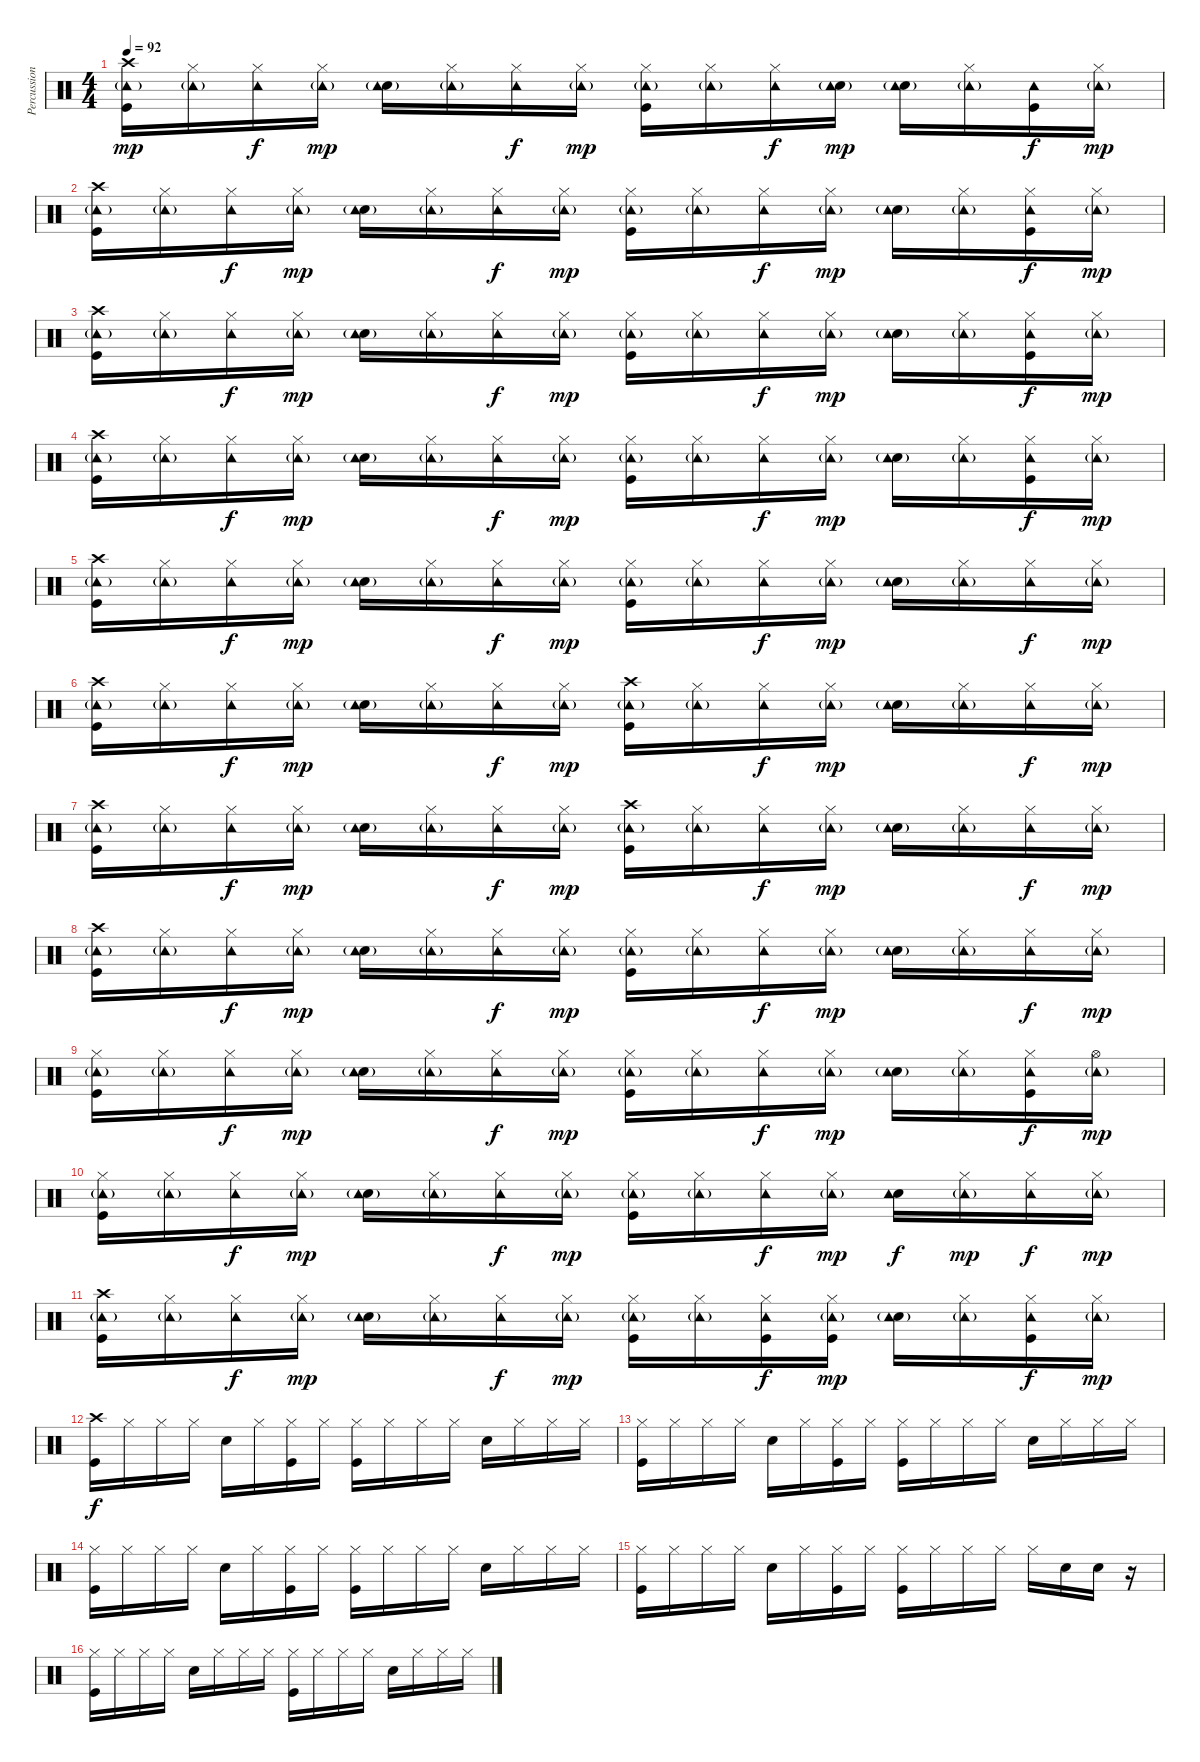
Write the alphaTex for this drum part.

\track ("Percussion" "Percussion") {instrument percussion}
\staff {score}
\articulation defaults
\ts (4 4)
\tempo 92
\clef neutral
\ks c
("Crash high (hit)" "Kick (hit)" "Tambourine (hit)"{g}).16{dy mp} ("Hi-Hat (closed)" "Tambourine (hit)"{g}).16 ("Hi-Hat (closed)" "Tambourine (hit)").16{dy f} ("Hi-Hat (closed)" "Tambourine (hit)"{g}).16{dy mp} ("Snare (hit) 2" "Tambourine (hit)"{g}).16 ("Hi-Hat (closed)" "Tambourine (hit)"{g}).16 ("Hi-Hat (closed)" "Tambourine (hit)").16{dy f} ("Hi-Hat (closed)" "Tambourine (hit)"{g}).16{dy mp} ("Hi-Hat (closed)" "Kick (hit)" "Tambourine (hit)"{g}).16 ("Hi-Hat (closed)" "Tambourine (hit)"{g}).16 ("Hi-Hat (closed)" "Tambourine (hit)").16{dy f} ("Snare (hit) 2" "Tambourine (hit)"{g}).16{dy mp} ("Snare (hit) 2" "Tambourine (hit)"{g}).16 ("Hi-Hat (closed)" "Tambourine (hit)"{g}).16 ("Kick (hit)" "Tambourine (hit)").16{dy f} ("Hi-Hat (closed)" "Tambourine (hit)"{g}).16{dy mp} |
("Crash high (hit)" "Kick (hit)" "Tambourine (hit)"{g}).16 ("Hi-Hat (closed)" "Tambourine (hit)"{g}).16 ("Hi-Hat (closed)" "Tambourine (hit)").16{dy f} ("Hi-Hat (closed)" "Tambourine (hit)"{g}).16{dy mp} ("Snare (hit) 2" "Tambourine (hit)"{g}).16 ("Hi-Hat (closed)" "Tambourine (hit)"{g}).16 ("Hi-Hat (closed)" "Tambourine (hit)").16{dy f} ("Hi-Hat (closed)" "Tambourine (hit)"{g}).16{dy mp} ("Hi-Hat (closed)" "Kick (hit)" "Tambourine (hit)"{g}).16 ("Hi-Hat (closed)" "Tambourine (hit)"{g}).16 ("Hi-Hat (closed)" "Tambourine (hit)").16{dy f} ("Hi-Hat (closed)" "Tambourine (hit)"{g}).16{dy mp} ("Snare (hit) 2" "Tambourine (hit)"{g}).16 ("Hi-Hat (closed)" "Tambourine (hit)"{g}).16 ("Hi-Hat (closed)" "Kick (hit)" "Tambourine (hit)").16{dy f} ("Hi-Hat (closed)" "Tambourine (hit)"{g}).16{dy mp} |
("Crash high (hit)" "Kick (hit)" "Tambourine (hit)"{g}).16 ("Hi-Hat (closed)" "Tambourine (hit)"{g}).16 ("Hi-Hat (closed)" "Tambourine (hit)").16{dy f} ("Hi-Hat (closed)" "Tambourine (hit)"{g}).16{dy mp} ("Snare (hit) 2" "Tambourine (hit)"{g}).16 ("Hi-Hat (closed)" "Tambourine (hit)"{g}).16 ("Hi-Hat (closed)" "Tambourine (hit)").16{dy f} ("Hi-Hat (closed)" "Tambourine (hit)"{g}).16{dy mp} ("Hi-Hat (closed)" "Kick (hit)" "Tambourine (hit)"{g}).16 ("Hi-Hat (closed)" "Tambourine (hit)"{g}).16 ("Hi-Hat (closed)" "Tambourine (hit)").16{dy f} ("Hi-Hat (closed)" "Tambourine (hit)"{g}).16{dy mp} ("Snare (hit) 2" "Tambourine (hit)"{g}).16 ("Hi-Hat (closed)" "Tambourine (hit)"{g}).16 ("Hi-Hat (closed)" "Kick (hit)" "Tambourine (hit)").16{dy f} ("Hi-Hat (closed)" "Tambourine (hit)"{g}).16{dy mp} |
("Crash high (hit)" "Kick (hit)" "Tambourine (hit)"{g}).16 ("Hi-Hat (closed)" "Tambourine (hit)"{g}).16 ("Hi-Hat (closed)" "Tambourine (hit)").16{dy f} ("Hi-Hat (closed)" "Tambourine (hit)"{g}).16{dy mp} ("Snare (hit) 2" "Tambourine (hit)"{g}).16 ("Hi-Hat (closed)" "Tambourine (hit)"{g}).16 ("Hi-Hat (closed)" "Tambourine (hit)").16{dy f} ("Hi-Hat (closed)" "Tambourine (hit)"{g}).16{dy mp} ("Hi-Hat (closed)" "Kick (hit)" "Tambourine (hit)"{g}).16 ("Hi-Hat (closed)" "Tambourine (hit)"{g}).16 ("Hi-Hat (closed)" "Tambourine (hit)").16{dy f} ("Hi-Hat (closed)" "Tambourine (hit)"{g}).16{dy mp} ("Snare (hit) 2" "Tambourine (hit)"{g}).16 ("Hi-Hat (closed)" "Tambourine (hit)"{g}).16 ("Hi-Hat (closed)" "Kick (hit)" "Tambourine (hit)").16{dy f} ("Hi-Hat (closed)" "Tambourine (hit)"{g}).16{dy mp} |
("Crash high (hit)" "Kick (hit)" "Tambourine (hit)"{g}).16 ("Hi-Hat (closed)" "Tambourine (hit)"{g}).16 ("Hi-Hat (closed)" "Tambourine (hit)").16{dy f} ("Hi-Hat (closed)" "Tambourine (hit)"{g}).16{dy mp} ("Snare (hit) 2" "Tambourine (hit)"{g}).16 ("Hi-Hat (closed)" "Tambourine (hit)"{g}).16 ("Hi-Hat (closed)" "Tambourine (hit)").16{dy f} ("Hi-Hat (closed)" "Tambourine (hit)"{g}).16{dy mp} ("Hi-Hat (closed)" "Kick (hit)" "Tambourine (hit)"{g}).16 ("Hi-Hat (closed)" "Tambourine (hit)"{g}).16 ("Hi-Hat (closed)" "Tambourine (hit)").16{dy f} ("Hi-Hat (closed)" "Tambourine (hit)"{g}).16{dy mp} ("Snare (hit) 2" "Tambourine (hit)"{g}).16 ("Hi-Hat (closed)" "Tambourine (hit)"{g}).16 ("Hi-Hat (closed)" "Tambourine (hit)").16{dy f} ("Hi-Hat (closed)" "Tambourine (hit)"{g}).16{dy mp} |
("Crash high (hit)" "Kick (hit)" "Tambourine (hit)"{g}).16 ("Hi-Hat (closed)" "Tambourine (hit)"{g}).16 ("Hi-Hat (closed)" "Tambourine (hit)").16{dy f} ("Hi-Hat (closed)" "Tambourine (hit)"{g}).16{dy mp} ("Snare (hit) 2" "Tambourine (hit)"{g}).16 ("Hi-Hat (closed)" "Tambourine (hit)"{g}).16 ("Hi-Hat (closed)" "Tambourine (hit)").16{dy f} ("Hi-Hat (closed)" "Tambourine (hit)"{g}).16{dy mp} ("Crash high (hit)" "Kick (hit)" "Tambourine (hit)"{g}).16 ("Hi-Hat (closed)" "Tambourine (hit)"{g}).16 ("Hi-Hat (closed)" "Tambourine (hit)").16{dy f} ("Hi-Hat (closed)" "Tambourine (hit)"{g}).16{dy mp} ("Snare (hit) 2" "Tambourine (hit)"{g}).16 ("Hi-Hat (closed)" "Tambourine (hit)"{g}).16 ("Hi-Hat (closed)" "Tambourine (hit)").16{dy f} ("Hi-Hat (closed)" "Tambourine (hit)"{g}).16{dy mp} |
("Crash high (hit)" "Kick (hit)" "Tambourine (hit)"{g}).16 ("Hi-Hat (closed)" "Tambourine (hit)"{g}).16 ("Hi-Hat (closed)" "Tambourine (hit)").16{dy f} ("Hi-Hat (closed)" "Tambourine (hit)"{g}).16{dy mp} ("Snare (hit) 2" "Tambourine (hit)"{g}).16 ("Hi-Hat (closed)" "Tambourine (hit)"{g}).16 ("Hi-Hat (closed)" "Tambourine (hit)").16{dy f} ("Hi-Hat (closed)" "Tambourine (hit)"{g}).16{dy mp} ("Crash high (hit)" "Kick (hit)" "Tambourine (hit)"{g}).16 ("Hi-Hat (closed)" "Tambourine (hit)"{g}).16 ("Hi-Hat (closed)" "Tambourine (hit)").16{dy f} ("Hi-Hat (closed)" "Tambourine (hit)"{g}).16{dy mp} ("Snare (hit) 2" "Tambourine (hit)"{g}).16 ("Hi-Hat (closed)" "Tambourine (hit)"{g}).16 ("Hi-Hat (closed)" "Tambourine (hit)").16{dy f} ("Hi-Hat (closed)" "Tambourine (hit)"{g}).16{dy mp} |
("Crash high (hit)" "Kick (hit)" "Tambourine (hit)"{g}).16 ("Hi-Hat (closed)" "Tambourine (hit)"{g}).16 ("Hi-Hat (closed)" "Tambourine (hit)").16{dy f} ("Hi-Hat (closed)" "Tambourine (hit)"{g}).16{dy mp} ("Snare (hit) 2" "Tambourine (hit)"{g}).16 ("Hi-Hat (closed)" "Tambourine (hit)"{g}).16 ("Hi-Hat (closed)" "Tambourine (hit)").16{dy f} ("Hi-Hat (closed)" "Tambourine (hit)"{g}).16{dy mp} ("Hi-Hat (closed)" "Kick (hit)" "Tambourine (hit)"{g}).16 ("Hi-Hat (closed)" "Tambourine (hit)"{g}).16 ("Hi-Hat (closed)" "Tambourine (hit)").16{dy f} ("Hi-Hat (closed)" "Tambourine (hit)"{g}).16{dy mp} ("Snare (hit) 2" "Tambourine (hit)"{g}).16 ("Hi-Hat (closed)" "Tambourine (hit)"{g}).16 ("Hi-Hat (closed)" "Tambourine (hit)").16{dy f} ("Hi-Hat (closed)" "Tambourine (hit)"{g}).16{dy mp} |
("Hi-Hat (closed)" "Kick (hit)" "Tambourine (hit)"{g}).16 ("Hi-Hat (closed)" "Tambourine (hit)"{g}).16 ("Hi-Hat (closed)" "Tambourine (hit)").16{dy f} ("Hi-Hat (closed)" "Tambourine (hit)"{g}).16{dy mp} ("Snare (hit) 2" "Tambourine (hit)"{g}).16 ("Hi-Hat (closed)" "Tambourine (hit)"{g}).16 ("Hi-Hat (closed)" "Tambourine (hit)").16{dy f} ("Hi-Hat (closed)" "Tambourine (hit)"{g}).16{dy mp} ("Hi-Hat (closed)" "Kick (hit)" "Tambourine (hit)"{g}).16 ("Hi-Hat (closed)" "Tambourine (hit)"{g}).16 ("Hi-Hat (closed)" "Tambourine (hit)").16{dy f} ("Hi-Hat (closed)" "Tambourine (hit)"{g}).16{dy mp} ("Snare (hit) 2" "Tambourine (hit)"{g}).16 ("Hi-Hat (closed)" "Tambourine (hit)"{g}).16 ("Hi-Hat (closed)" "Kick (hit)" "Tambourine (hit)").16{dy f} ("Hi-Hat (open)" "Tambourine (hit)"{g}).16{dy mp} |
("Hi-Hat (closed)" "Kick (hit)" "Tambourine (hit)"{g}).16 ("Hi-Hat (closed)" "Tambourine (hit)"{g}).16 ("Hi-Hat (closed)" "Tambourine (hit)").16{dy f} ("Hi-Hat (closed)" "Tambourine (hit)"{g}).16{dy mp} ("Snare (hit) 2" "Tambourine (hit)"{g}).16 ("Hi-Hat (closed)" "Tambourine (hit)"{g}).16 ("Hi-Hat (closed)" "Tambourine (hit)").16{dy f} ("Hi-Hat (closed)" "Tambourine (hit)"{g}).16{dy mp} ("Hi-Hat (closed)" "Kick (hit)" "Tambourine (hit)"{g}).16 ("Hi-Hat (closed)" "Tambourine (hit)"{g}).16 ("Hi-Hat (closed)" "Tambourine (hit)").16{dy f} ("Hi-Hat (closed)" "Tambourine (hit)"{g}).16{dy mp} ("Snare (hit) 2" "Tambourine (hit)").16{dy f} ("Hi-Hat (closed)" "Tambourine (hit)"{g}).16{dy mp} ("Hi-Hat (closed)" "Tambourine (hit)").16{dy f} ("Hi-Hat (closed)" "Tambourine (hit)"{g}).16{dy mp} |
("Crash high (hit)" "Kick (hit)" "Tambourine (hit)"{g}).16 ("Hi-Hat (closed)" "Tambourine (hit)"{g}).16 ("Hi-Hat (closed)" "Tambourine (hit)").16{dy f} ("Hi-Hat (closed)" "Tambourine (hit)"{g}).16{dy mp} ("Snare (hit) 2" "Tambourine (hit)"{g}).16 ("Hi-Hat (closed)" "Tambourine (hit)"{g}).16 ("Hi-Hat (closed)" "Tambourine (hit)").16{dy f} ("Hi-Hat (closed)" "Tambourine (hit)"{g}).16{dy mp} ("Hi-Hat (closed)" "Kick (hit)" "Tambourine (hit)"{g}).16 ("Hi-Hat (closed)" "Tambourine (hit)"{g}).16 ("Hi-Hat (closed)" "Kick (hit)" "Tambourine (hit)").16{dy f} ("Hi-Hat (closed)" "Kick (hit)" "Tambourine (hit)"{g}).16{dy mp} ("Snare (hit) 2" "Tambourine (hit)"{g}).16 ("Hi-Hat (closed)" "Tambourine (hit)"{g}).16 ("Hi-Hat (closed)" "Kick (hit)" "Tambourine (hit)").16{dy f} ("Hi-Hat (closed)" "Tambourine (hit)"{g}).16{dy mp} |
("Crash high (hit)" "Kick (hit)").16{dy f} "Hi-Hat (closed)".16 "Hi-Hat (closed)".16 "Hi-Hat (closed)".16 "Electric Snare (hit)".16 "Hi-Hat (closed)".16 ("Hi-Hat (closed)" "Kick (hit)").16 "Hi-Hat (closed)".16 ("Hi-Hat (closed)" "Kick (hit)").16 "Hi-Hat (closed)".16 "Hi-Hat (closed)".16 "Hi-Hat (closed)".16 "Electric Snare (hit)".16 "Hi-Hat (closed)".16 "Hi-Hat (closed)".16 "Hi-Hat (closed)".16 |
("Hi-Hat (closed)" "Kick (hit)").16 "Hi-Hat (closed)".16 "Hi-Hat (closed)".16 "Hi-Hat (closed)".16 "Electric Snare (hit)".16 "Hi-Hat (closed)".16 ("Hi-Hat (closed)" "Kick (hit)").16 "Hi-Hat (closed)".16 ("Hi-Hat (closed)" "Kick (hit)").16 "Hi-Hat (closed)".16 "Hi-Hat (closed)".16 "Hi-Hat (closed)".16 "Electric Snare (hit)".16 "Hi-Hat (closed)".16 "Hi-Hat (closed)".16 "Hi-Hat (closed)".16 |
("Hi-Hat (closed)" "Kick (hit)").16 "Hi-Hat (closed)".16 "Hi-Hat (closed)".16 "Hi-Hat (closed)".16 "Electric Snare (hit)".16 "Hi-Hat (closed)".16 ("Hi-Hat (closed)" "Kick (hit)").16 "Hi-Hat (closed)".16 ("Hi-Hat (closed)" "Kick (hit)").16 "Hi-Hat (closed)".16 "Hi-Hat (closed)".16 "Hi-Hat (closed)".16 "Electric Snare (hit)".16 "Hi-Hat (closed)".16 "Hi-Hat (closed)".16 "Hi-Hat (closed)".16 |
("Hi-Hat (closed)" "Kick (hit)").16 "Hi-Hat (closed)".16 "Hi-Hat (closed)".16 "Hi-Hat (closed)".16 "Electric Snare (hit)".16 "Hi-Hat (closed)".16 ("Hi-Hat (closed)" "Kick (hit)").16 "Hi-Hat (closed)".16 ("Hi-Hat (closed)" "Kick (hit)").16 "Hi-Hat (closed)".16 "Hi-Hat (closed)".16 "Hi-Hat (closed)".16 "Hi-Hat (closed)".16 "Snare (hit) 2".16 "Snare (hit) 2".16 r.16 |
("Hi-Hat (closed)" "Kick (hit)").16 "Hi-Hat (closed)".16 "Hi-Hat (closed)".16 "Hi-Hat (closed)".16 "Snare (hit) 2".16 "Hi-Hat (closed)".16 "Hi-Hat (closed)".16 "Hi-Hat (closed)".16 ("Hi-Hat (closed)" "Kick (hit)").16 "Hi-Hat (closed)".16 "Hi-Hat (closed)".16 "Hi-Hat (closed)".16 "Snare (hit) 2".16 "Hi-Hat (closed)".16 "Hi-Hat (closed)".16 "Hi-Hat (closed)".16
